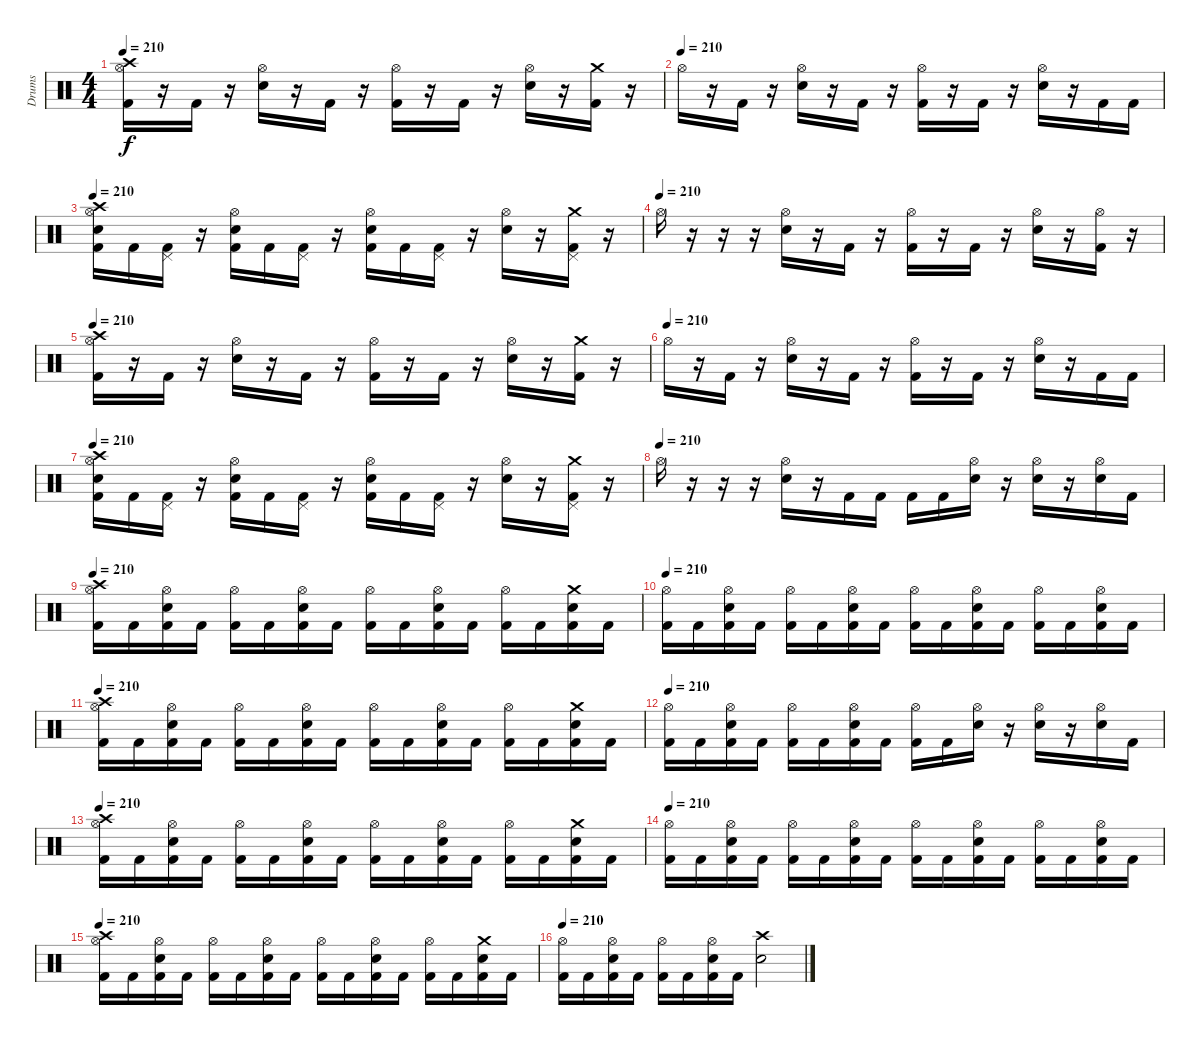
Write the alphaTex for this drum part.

\track ("Drums" "Drums") {instrument percussion}
\staff {score}
\articulation defaults
\ts (4 4)
\tempo 210
\clef neutral
\ks c
("Crash high (hit)" "Hi-Hat (open)" "Kick (hit) 2").16{dy f} r.16 "Kick (hit) 2".16 r.16 ("Hi-Hat (open)" "Electric Snare (hit)").16 r.16 "Kick (hit) 2".16 r.16 ("Hi-Hat (open)" "Kick (hit) 2").16 r.16 "Kick (hit) 2".16 r.16 ("Hi-Hat (open)" "Electric Snare (hit)").16 r.16 ("Crash medium (hit)" "Kick (hit) 2").16 r.16 |
\tempo (210)
"Hi-Hat (open)".16 r.16 "Kick (hit) 2".16 r.16 ("Hi-Hat (open)" "Electric Snare (hit)").16 r.16 "Kick (hit) 2".16 r.16 ("Hi-Hat (open)" "Kick (hit) 2").16 r.16 "Kick (hit) 2".16 r.16 ("Hi-Hat (open)" "Electric Snare (hit)").16 r.16 "Kick (hit) 2".16 "Kick (hit) 2".16 |
\tempo 210
("Crash high (hit)" "Hi-Hat (open)" "Electric Snare (hit)" "Kick (hit) 2").16 "Kick (hit) 2".16 ("Pedal Hi-Hat (hit)" "Kick (hit) 2").16 r.16 ("Hi-Hat (open)" "Electric Snare (hit)" "Kick (hit) 2").16 "Kick (hit) 2".16 ("Pedal Hi-Hat (hit)" "Kick (hit) 2").16 r.16 ("Hi-Hat (open)" "Electric Snare (hit)" "Kick (hit) 2").16 "Kick (hit) 2".16 ("Pedal Hi-Hat (hit)" "Kick (hit) 2").16 r.16 ("Hi-Hat (open)" "Electric Snare (hit)").16 r.16 ("Crash medium (hit)" "Pedal Hi-Hat (hit)" "Kick (hit) 2").16 r.16 |
\tempo (210)
"Hi-Hat (open)".16 r.16 r.16 r.16 ("Hi-Hat (open)" "Electric Snare (hit)").16 r.16 "Kick (hit) 2".16 r.16 ("Hi-Hat (open)" "Kick (hit) 2").16 r.16 "Kick (hit) 2".16 r.16 ("Hi-Hat (open)" "Electric Snare (hit)").16 r.16 ("Hi-Hat (open)" "Kick (hit) 2").16 r.16 |
\tempo 210
("Crash high (hit)" "Hi-Hat (open)" "Kick (hit) 2").16 r.16 "Kick (hit) 2".16 r.16 ("Hi-Hat (open)" "Electric Snare (hit)").16 r.16 "Kick (hit) 2".16 r.16 ("Hi-Hat (open)" "Kick (hit) 2").16 r.16 "Kick (hit) 2".16 r.16 ("Hi-Hat (open)" "Electric Snare (hit)").16 r.16 ("Crash medium (hit)" "Kick (hit) 2").16 r.16 |
\tempo (210)
"Hi-Hat (open)".16 r.16 "Kick (hit) 2".16 r.16 ("Hi-Hat (open)" "Electric Snare (hit)").16 r.16 "Kick (hit) 2".16 r.16 ("Hi-Hat (open)" "Kick (hit) 2").16 r.16 "Kick (hit) 2".16 r.16 ("Hi-Hat (open)" "Electric Snare (hit)").16 r.16 "Kick (hit) 2".16 "Kick (hit) 2".16 |
\tempo 210
("Crash high (hit)" "Hi-Hat (open)" "Electric Snare (hit)" "Kick (hit) 2").16 "Kick (hit) 2".16 ("Pedal Hi-Hat (hit)" "Kick (hit) 2").16 r.16 ("Hi-Hat (open)" "Electric Snare (hit)" "Kick (hit) 2").16 "Kick (hit) 2".16 ("Pedal Hi-Hat (hit)" "Kick (hit) 2").16 r.16 ("Hi-Hat (open)" "Electric Snare (hit)" "Kick (hit) 2").16 "Kick (hit) 2".16 ("Pedal Hi-Hat (hit)" "Kick (hit) 2").16 r.16 ("Hi-Hat (open)" "Electric Snare (hit)").16 r.16 ("Crash medium (hit)" "Pedal Hi-Hat (hit)" "Kick (hit) 2").16 r.16 |
\tempo (210)
"Hi-Hat (open)".16 r.16 r.16 r.16 ("Hi-Hat (open)" "Electric Snare (hit)").16 r.16 "Kick (hit) 2".16 "Kick (hit) 2".16 "Kick (hit) 2".16 "Kick (hit) 2".16 ("Hi-Hat (open)" "Electric Snare (hit)").16 r.16 ("Hi-Hat (open)" "Electric Snare (hit)").16 r.16 ("Hi-Hat (open)" "Electric Snare (hit)").16 "Kick (hit) 2".16 |
\tempo 210
("Crash high (hit)" "Hi-Hat (open)" "Kick (hit) 2").16 "Kick (hit) 2".16 ("Hi-Hat (open)" "Electric Snare (hit)" "Kick (hit) 2").16 "Kick (hit) 2".16 ("Hi-Hat (open)" "Kick (hit) 2").16 "Kick (hit) 2".16 ("Hi-Hat (open)" "Electric Snare (hit)" "Kick (hit) 2").16 "Kick (hit) 2".16 ("Hi-Hat (open)" "Kick (hit) 2").16 "Kick (hit) 2".16 ("Hi-Hat (open)" "Electric Snare (hit)" "Kick (hit) 2").16 "Kick (hit) 2".16 ("Hi-Hat (open)" "Kick (hit) 2").16 "Kick (hit) 2".16 ("Crash medium (hit)" "Electric Snare (hit)" "Kick (hit) 2").16 "Kick (hit) 2".16 |
\tempo 210
("Hi-Hat (open)" "Kick (hit) 2").16 "Kick (hit) 2".16 ("Hi-Hat (open)" "Electric Snare (hit)" "Kick (hit) 2").16 "Kick (hit) 2".16 ("Hi-Hat (open)" "Kick (hit) 2").16 "Kick (hit) 2".16 ("Hi-Hat (open)" "Electric Snare (hit)" "Kick (hit) 2").16 "Kick (hit) 2".16 ("Hi-Hat (open)" "Kick (hit) 2").16 "Kick (hit) 2".16 ("Hi-Hat (open)" "Electric Snare (hit)" "Kick (hit) 2").16 "Kick (hit) 2".16 ("Hi-Hat (open)" "Kick (hit) 2").16 "Kick (hit) 2".16 ("Hi-Hat (open)" "Electric Snare (hit)" "Kick (hit) 2").16 "Kick (hit) 2".16 |
\tempo 210
("Crash high (hit)" "Hi-Hat (open)" "Kick (hit) 2").16 "Kick (hit) 2".16 ("Hi-Hat (open)" "Electric Snare (hit)" "Kick (hit) 2").16 "Kick (hit) 2".16 ("Hi-Hat (open)" "Kick (hit) 2").16 "Kick (hit) 2".16 ("Hi-Hat (open)" "Electric Snare (hit)" "Kick (hit) 2").16 "Kick (hit) 2".16 ("Hi-Hat (open)" "Kick (hit) 2").16 "Kick (hit) 2".16 ("Hi-Hat (open)" "Electric Snare (hit)" "Kick (hit) 2").16 "Kick (hit) 2".16 ("Hi-Hat (open)" "Kick (hit) 2").16 "Kick (hit) 2".16 ("Crash medium (hit)" "Electric Snare (hit)" "Kick (hit) 2").16 "Kick (hit) 2".16 |
\tempo 210
("Hi-Hat (open)" "Kick (hit) 2").16 "Kick (hit) 2".16 ("Hi-Hat (open)" "Electric Snare (hit)" "Kick (hit) 2").16 "Kick (hit) 2".16 ("Hi-Hat (open)" "Kick (hit) 2").16 "Kick (hit) 2".16 ("Hi-Hat (open)" "Electric Snare (hit)" "Kick (hit) 2").16 "Kick (hit) 2".16 ("Hi-Hat (open)" "Kick (hit) 2").16 "Kick (hit) 2".16 ("Hi-Hat (open)" "Electric Snare (hit)").16 r.16 ("Hi-Hat (open)" "Electric Snare (hit)").16 r.16 ("Hi-Hat (open)" "Electric Snare (hit)").16 "Kick (hit) 2".16 |
\tempo 210
("Crash high (hit)" "Hi-Hat (open)" "Kick (hit) 2").16 "Kick (hit) 2".16 ("Hi-Hat (open)" "Electric Snare (hit)" "Kick (hit) 2").16 "Kick (hit) 2".16 ("Hi-Hat (open)" "Kick (hit) 2").16 "Kick (hit) 2".16 ("Hi-Hat (open)" "Electric Snare (hit)" "Kick (hit) 2").16 "Kick (hit) 2".16 ("Hi-Hat (open)" "Kick (hit) 2").16 "Kick (hit) 2".16 ("Hi-Hat (open)" "Electric Snare (hit)" "Kick (hit) 2").16 "Kick (hit) 2".16 ("Hi-Hat (open)" "Kick (hit) 2").16 "Kick (hit) 2".16 ("Crash medium (hit)" "Electric Snare (hit)" "Kick (hit) 2").16 "Kick (hit) 2".16 |
\tempo 210
("Hi-Hat (open)" "Kick (hit) 2").16 "Kick (hit) 2".16 ("Hi-Hat (open)" "Electric Snare (hit)" "Kick (hit) 2").16 "Kick (hit) 2".16 ("Hi-Hat (open)" "Kick (hit) 2").16 "Kick (hit) 2".16 ("Hi-Hat (open)" "Electric Snare (hit)" "Kick (hit) 2").16 "Kick (hit) 2".16 ("Hi-Hat (open)" "Kick (hit) 2").16 "Kick (hit) 2".16 ("Hi-Hat (open)" "Electric Snare (hit)" "Kick (hit) 2").16 "Kick (hit) 2".16 ("Hi-Hat (open)" "Kick (hit) 2").16 "Kick (hit) 2".16 ("Hi-Hat (open)" "Electric Snare (hit)" "Kick (hit) 2").16 "Kick (hit) 2".16 |
\tempo 210
("Crash high (hit)" "Hi-Hat (open)" "Kick (hit) 2").16 "Kick (hit) 2".16 ("Hi-Hat (open)" "Electric Snare (hit)" "Kick (hit) 2").16 "Kick (hit) 2".16 ("Hi-Hat (open)" "Kick (hit) 2").16 "Kick (hit) 2".16 ("Hi-Hat (open)" "Electric Snare (hit)" "Kick (hit) 2").16 "Kick (hit) 2".16 ("Hi-Hat (open)" "Kick (hit) 2").16 "Kick (hit) 2".16 ("Hi-Hat (open)" "Electric Snare (hit)" "Kick (hit) 2").16 "Kick (hit) 2".16 ("Hi-Hat (open)" "Kick (hit) 2").16 "Kick (hit) 2".16 ("Crash medium (hit)" "Electric Snare (hit)" "Kick (hit) 2").16 "Kick (hit) 2".16 |
\tempo 210
("Hi-Hat (open)" "Kick (hit) 2").16 "Kick (hit) 2".16 ("Hi-Hat (open)" "Electric Snare (hit)" "Kick (hit) 2").16 "Kick (hit) 2".16 ("Hi-Hat (open)" "Kick (hit) 2").16 "Kick (hit) 2".16 ("Hi-Hat (open)" "Electric Snare (hit)" "Kick (hit) 2").16 "Kick (hit) 2".16 ("Crash high (hit)" "Electric Snare (hit)").2
